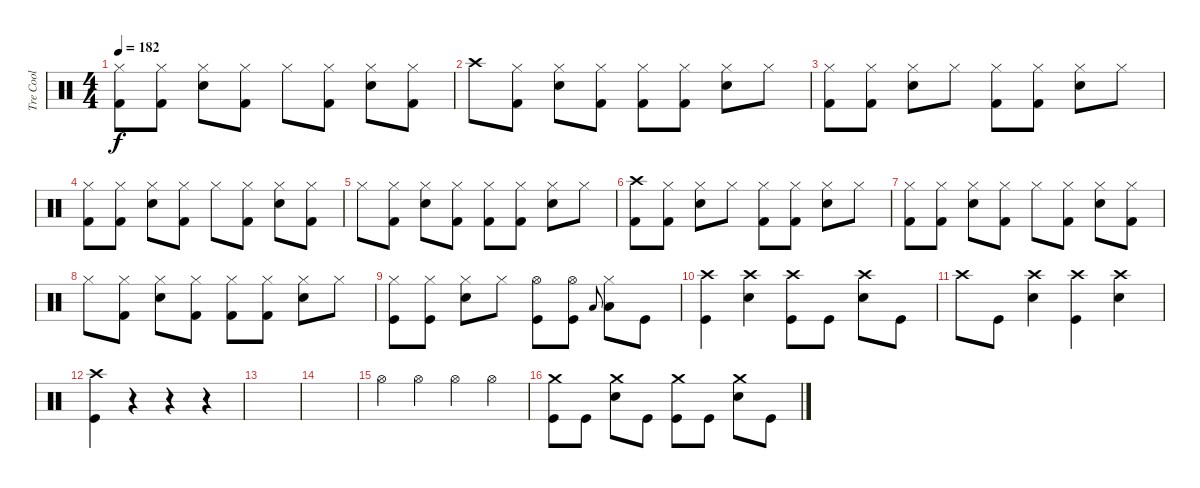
\track ("Tre Cool" "Tre Cool") {instrument percussion}
\staff {score}
\articulation defaults
\ts (4 4)
\tempo 182
\clef neutral
\ks c
("Hi-Hat (closed)" "Kick (hit) 2").8{dy f} ("Hi-Hat (closed)" "Kick (hit) 2").8 ("Hi-Hat (closed)" "Snare (hit) 2").8 ("Hi-Hat (closed)" "Kick (hit) 2").8 "Hi-Hat (closed)".8 ("Hi-Hat (closed)" "Kick (hit) 2").8 ("Hi-Hat (closed)" "Snare (hit) 2").8 ("Hi-Hat (closed)" "Kick (hit) 2").8 |
"Crash high (hit)".8 ("Hi-Hat (closed)" "Kick (hit) 2").8 ("Hi-Hat (closed)" "Snare (hit) 2").8 ("Hi-Hat (closed)" "Kick (hit) 2").8 ("Hi-Hat (closed)" "Kick (hit) 2").8 ("Hi-Hat (closed)" "Kick (hit) 2").8 ("Hi-Hat (closed)" "Snare (hit) 2").8 "Hi-Hat (closed)".8 |
("Hi-Hat (closed)" "Kick (hit) 2").8 ("Hi-Hat (closed)" "Kick (hit) 2").8 ("Hi-Hat (closed)" "Snare (hit) 2").8 "Hi-Hat (closed)".8 ("Hi-Hat (closed)" "Kick (hit) 2").8 ("Hi-Hat (closed)" "Kick (hit) 2").8 ("Hi-Hat (closed)" "Snare (hit) 2").8 "Hi-Hat (closed)".8 |
("Hi-Hat (closed)" "Kick (hit) 2").8 ("Hi-Hat (closed)" "Kick (hit) 2").8 ("Hi-Hat (closed)" "Snare (hit) 2").8 ("Hi-Hat (closed)" "Kick (hit) 2").8 "Hi-Hat (closed)".8 ("Hi-Hat (closed)" "Kick (hit) 2").8 ("Hi-Hat (closed)" "Snare (hit) 2").8 ("Hi-Hat (closed)" "Kick (hit) 2").8 |
"Hi-Hat (closed)".8 ("Hi-Hat (closed)" "Kick (hit) 2").8 ("Hi-Hat (closed)" "Snare (hit) 2").8 ("Hi-Hat (closed)" "Kick (hit) 2").8 ("Hi-Hat (closed)" "Kick (hit) 2").8 ("Hi-Hat (closed)" "Kick (hit) 2").8 ("Hi-Hat (closed)" "Snare (hit) 2").8 "Hi-Hat (closed)".8 |
("Crash high (hit)" "Kick (hit) 2").8 ("Hi-Hat (closed)" "Kick (hit) 2").8 ("Hi-Hat (closed)" "Snare (hit) 2").8 "Hi-Hat (closed)".8 ("Hi-Hat (closed)" "Kick (hit) 2").8 ("Hi-Hat (closed)" "Kick (hit) 2").8 ("Hi-Hat (closed)" "Snare (hit) 2").8 "Hi-Hat (closed)".8 |
("Hi-Hat (closed)" "Kick (hit) 2").8 ("Hi-Hat (closed)" "Kick (hit) 2").8 ("Hi-Hat (closed)" "Snare (hit) 2").8 ("Hi-Hat (closed)" "Kick (hit) 2").8 "Hi-Hat (closed)".8 ("Hi-Hat (closed)" "Kick (hit) 2").8 ("Hi-Hat (closed)" "Snare (hit) 2").8 ("Hi-Hat (closed)" "Kick (hit) 2").8 |
"Hi-Hat (closed)".8 ("Hi-Hat (closed)" "Kick (hit) 2").8 ("Hi-Hat (closed)" "Snare (hit) 2").8 ("Hi-Hat (closed)" "Kick (hit) 2").8 ("Hi-Hat (closed)" "Kick (hit) 2").8 ("Hi-Hat (closed)" "Kick (hit) 2").8 ("Hi-Hat (closed)" "Snare (hit) 2").8 "Hi-Hat (closed)".8 |
("Hi-Hat (closed)" "Kick (hit)").8 ("Hi-Hat (closed)" "Kick (hit)").8 ("Hi-Hat (closed)" "Snare (hit) 2").8 "Hi-Hat (closed)".8 ("Hi-Hat (open)" "Kick (hit)").8 ("Hi-Hat (open)" "Kick (hit)").8 "Low Tom (hit)".8{gr onbeat} ("Hi-Hat (closed)" "Low Tom (hit)").8 "Kick (hit)".8 |
("Crash high (hit)" "Kick (hit)").4 ("Crash high (hit)" "Electric Snare (hit)").4 ("Crash high (hit)" "Kick (hit)").8 "Kick (hit)".8 ("Crash high (hit)" "Electric Snare (hit)").8 "Kick (hit)".8 |
"Crash high (hit)".8 "Kick (hit)".8 ("Crash high (hit)" "Electric Snare (hit)").4 ("Crash high (hit)" "Kick (hit)").4 ("Crash high (hit)" "Electric Snare (hit)").4 |
("Crash high (hit)" "Kick (hit)").4 r.4 r.4 r.4 |
|
|
"Hi-Hat (open)".4 "Hi-Hat (open)".4 "Hi-Hat (open)".4 "Hi-Hat (open)".4 |
("Crash medium (hit)" "Kick (hit)").8 "Kick (hit)".8 ("Crash medium (hit)" "Snare (hit) 2").8 "Kick (hit)".8 ("Crash medium (hit)" "Kick (hit)").8 "Kick (hit)".8 ("Crash medium (hit)" "Snare (hit) 2").8 "Kick (hit)".8
